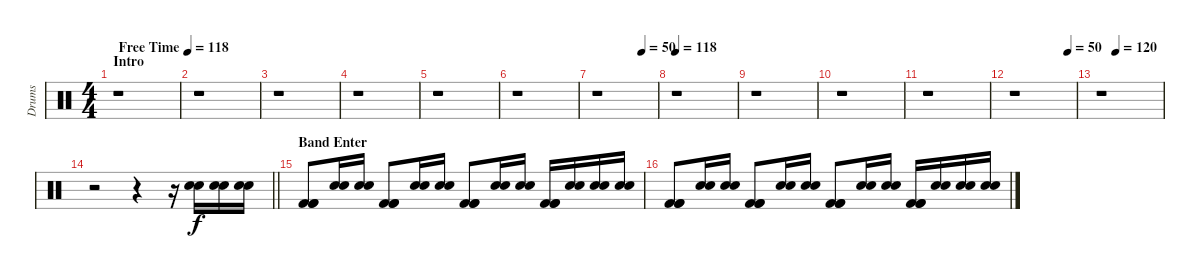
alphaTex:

\track ("Drums" "Drums") {instrument percussion}
\staff {score}
\articulation defaults
\ts (4 4)
\section ("" "Intro")
\tempo (118 "Free Time")
\clef neutral
\ks c
r.1{dy f} |
r.1 |
r.1 |
r.1 |
r.1 |
r.1 |
\tempo (50 0.75)
r.1 |
\tempo 118
r.1 |
r.1 |
r.1 |
r.1 |
\tempo (50 0.875)
r.1 |
\tempo (120 0.25)
r.1 |
\barLineRight lightlight
r.2 r.4 r.16 ("Snare (hit) 2" "Snare (hit) 2").16 ("Snare (hit) 2" "Snare (hit) 2").16 ("Snare (hit) 2" "Snare (hit) 2").16 |
\section ("" "Band Enter")
("Kick (hit) 2" "Kick (hit) 2" "Kick (hit) 2").8 ("Snare (hit) 2" "Snare (hit) 2").16 ("Snare (hit) 2" "Snare (hit) 2").16 ("Kick (hit) 2" "Kick (hit) 2" "Kick (hit) 2").8 ("Snare (hit) 2" "Snare (hit) 2").16 ("Snare (hit) 2" "Snare (hit) 2").16 ("Kick (hit) 2" "Kick (hit) 2" "Kick (hit) 2").8 ("Snare (hit) 2" "Snare (hit) 2").16 ("Snare (hit) 2" "Snare (hit) 2").16 ("Kick (hit) 2" "Kick (hit) 2" "Kick (hit) 2").16 ("Snare (hit) 2" "Snare (hit) 2").16 ("Snare (hit) 2" "Snare (hit) 2").16 ("Snare (hit) 2" "Snare (hit) 2").16 |
("Kick (hit) 2" "Kick (hit) 2" "Kick (hit) 2").8 ("Snare (hit) 2" "Snare (hit) 2").16 ("Snare (hit) 2" "Snare (hit) 2").16 ("Kick (hit) 2" "Kick (hit) 2" "Kick (hit) 2").8 ("Snare (hit) 2" "Snare (hit) 2").16 ("Snare (hit) 2" "Snare (hit) 2").16 ("Kick (hit) 2" "Kick (hit) 2" "Kick (hit) 2").8 ("Snare (hit) 2" "Snare (hit) 2").16 ("Snare (hit) 2" "Snare (hit) 2").16 ("Kick (hit) 2" "Kick (hit) 2" "Kick (hit) 2").16 ("Snare (hit) 2" "Snare (hit) 2").16 ("Snare (hit) 2" "Snare (hit) 2").16 ("Snare (hit) 2" "Snare (hit) 2").16
